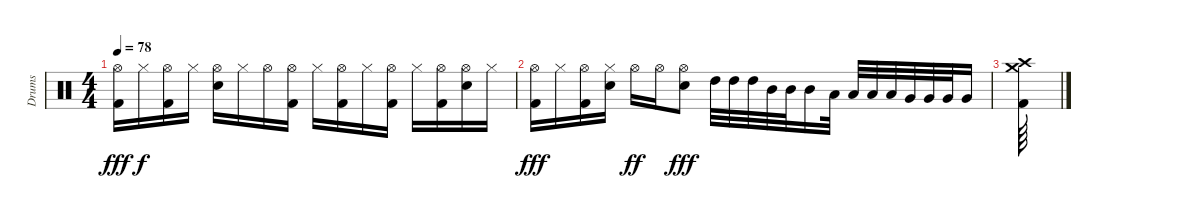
\track ("Drums" "Drums") {instrument percussion}
\staff {score}
\articulation defaults
\ts (4 4)
\tempo 78
\clef neutral
\ks c
("Hi-Hat (open)" "Kick (hit) 2").16{dy fff} "Hi-Hat (closed)".16{dy f} ("Hi-Hat (open)" "Kick (hit) 2").16 "Hi-Hat (closed)".16 ("Hi-Hat (open)" "Snare (hit) 2").16 "Hi-Hat (closed)".16 "Hi-Hat (open)".16 ("Hi-Hat (open)" "Kick (hit) 2").16 "Hi-Hat (closed)".16 ("Hi-Hat (open)" "Kick (hit) 2").16 "Hi-Hat (closed)".16 ("Hi-Hat (open)" "Kick (hit) 2").16 "Hi-Hat (closed)".16 ("Hi-Hat (open)" "Kick (hit) 2").16 ("Hi-Hat (open)" "Snare (hit) 2").16 "Hi-Hat (closed)".16 |
("Hi-Hat (open)" "Kick (hit) 2").16{dy fff} "Hi-Hat (closed)".16 ("Hi-Hat (open)" "Kick (hit) 2").16 ("Hi-Hat (closed)" "Snare (hit) 2").16 "Hi-Hat (open)".16{dy ff} "Hi-Hat (open)".16 ("Hi-Hat (open)" "Snare (hit) 2").8{dy fff} "High Tom (hit)".32 "High Tom (hit)".32 "High Tom (hit)".32 "Mid Tom (hit)".32 "Mid Tom (hit)".32 "Mid Tom (hit)".16 "Low Tom (hit)".32 "Low Tom (hit)".32 "Low Tom (hit)".32 "Low Tom (hit)".32 "Very Low Tom (hit)".32 "Very Low Tom (hit)".32 "Very Low Tom (hit)".32 "Very Low Tom (hit)".16 |
("Crash medium (hit)" "Crash high (hit)" "Kick (hit) 2").64
